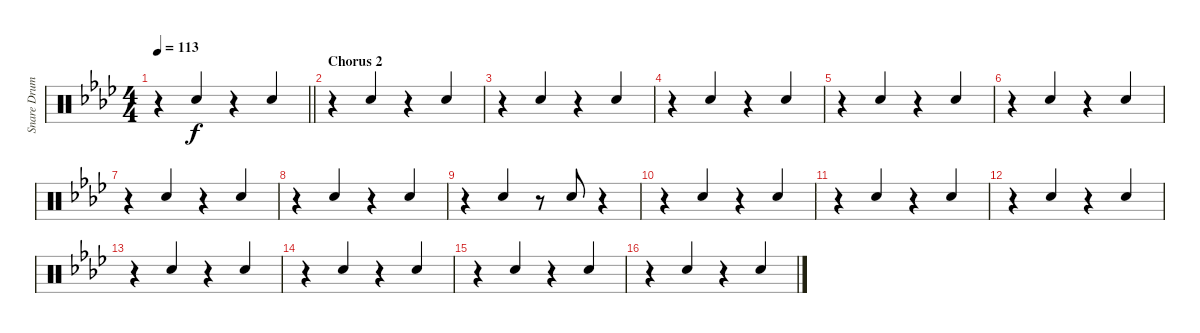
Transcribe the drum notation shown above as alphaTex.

\track ("Snare Drum - reverb" "Snare Drum") {instrument percussion}
\staff {score}
\articulation defaults
\ts (4 4)
\tempo 113
\clef neutral
\barLineRight lightlight
\ks fminor
r.4{dy f} "Snare (hit) 2".4{beam Up} r.4 "Snare (hit) 2".4{beam Up} |
\section ("" "Chorus 2")
r.4 "Snare (hit) 2".4{beam Up} r.4 "Snare (hit) 2".4{beam Up} |
r.4 "Snare (hit) 2".4{beam Up} r.4 "Snare (hit) 2".4{beam Up} |
r.4 "Snare (hit) 2".4{beam Up} r.4 "Snare (hit) 2".4{beam Up} |
r.4 "Snare (hit) 2".4{beam Up} r.4 "Snare (hit) 2".4{beam Up} |
r.4 "Snare (hit) 2".4{beam Up} r.4 "Snare (hit) 2".4{beam Up} |
r.4 "Snare (hit) 2".4{beam Up} r.4 "Snare (hit) 2".4{beam Up} |
r.4 "Snare (hit) 2".4{beam Up} r.4 "Snare (hit) 2".4{beam Up} |
r.4 "Snare (hit) 2".4{beam Up} r.8 "Snare (hit) 2".8{beam Up} r.4 |
r.4 "Snare (hit) 2".4{beam Up} r.4 "Snare (hit) 2".4{beam Up} |
r.4 "Snare (hit) 2".4{beam Up} r.4 "Snare (hit) 2".4{beam Up} |
r.4 "Snare (hit) 2".4{beam Up} r.4 "Snare (hit) 2".4{beam Up} |
r.4 "Snare (hit) 2".4{beam Up} r.4 "Snare (hit) 2".4{beam Up} |
r.4 "Snare (hit) 2".4{beam Up} r.4 "Snare (hit) 2".4{beam Up} |
r.4 "Snare (hit) 2".4{beam Up} r.4 "Snare (hit) 2".4{beam Up} |
r.4 "Snare (hit) 2".4{beam Up} r.4 "Snare (hit) 2".4{beam Up}
